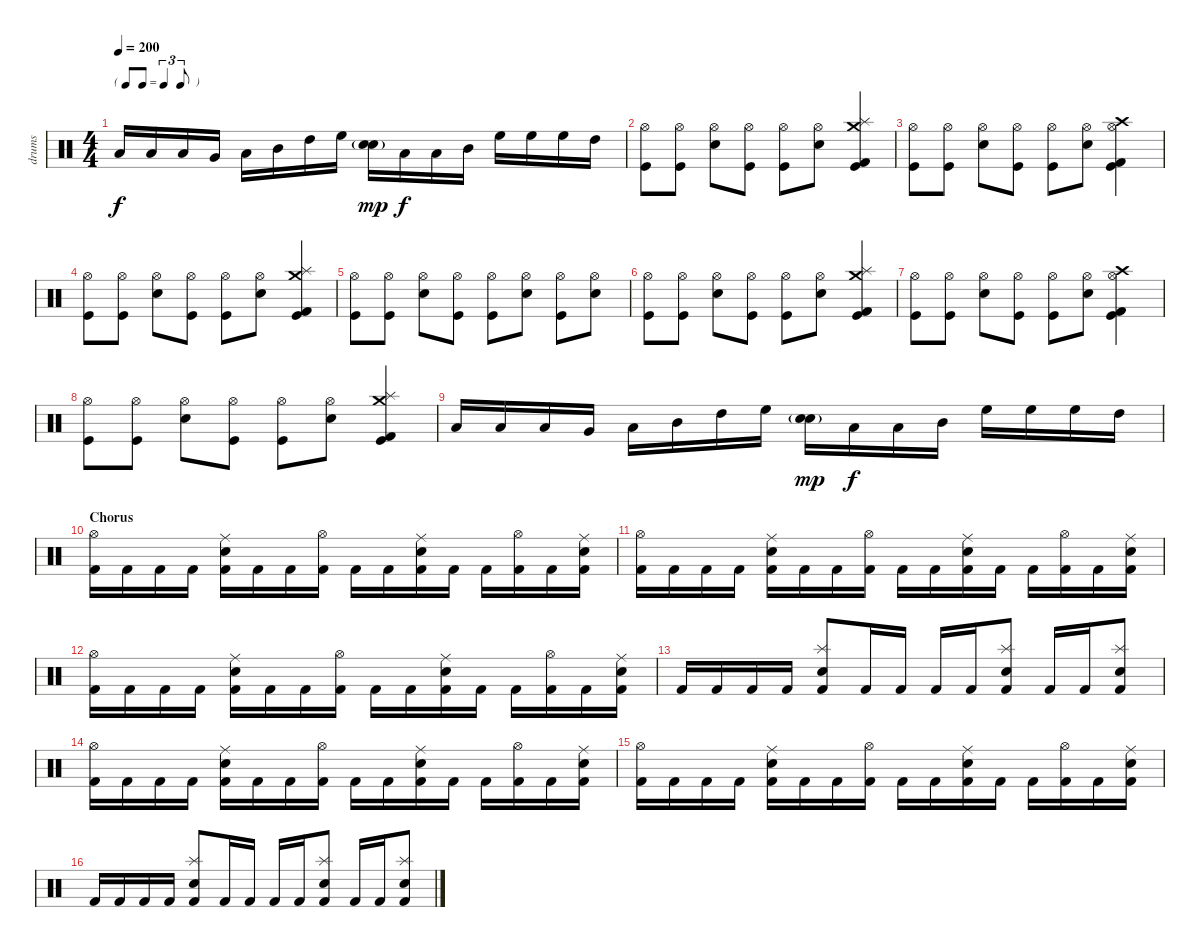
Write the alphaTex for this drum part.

\track ("drums" "drums") {instrument percussion}
\staff {score}
\articulation defaults
\ts (4 4)
\tf triplet8th
\tempo 200
\clef neutral
\ks c "Low Floor Tom (hit)".16{dy f} "Low Floor Tom (hit)".16 "Low Floor Tom (hit)".16 "Very Low Tom (hit)".16 "Low Tom (hit)".16 "Mid Tom (hit)".16 "High Tom (hit)".16 "High Floor Tom (hit)".16
("Electric Snare (hit)"{g} "Snare (hit) 2").16{dy mp} "Low Floor Tom (hit)".16{dy f} "Low Tom (hit)".16 "Mid Tom (hit)".16 "High Floor Tom (hit)".16 "High Floor Tom (hit)".16 "High Floor Tom (hit)".16 "High Tom (hit)".16 |
("Hi-Hat (open)" "Kick (hit)").8 ("Hi-Hat (open)" "Kick (hit)").8 ("Hi-Hat (open)" "Snare (hit) 2").8 ("Hi-Hat (open)" "Kick (hit)").8 ("Hi-Hat (open)" "Kick (hit)").8 ("Hi-Hat (open)" "Snare (hit) 2").8 ("Crash medium (hit)" "Splash (hit)" "Kick (hit)" "Kick (hit) 2").4 |
("Hi-Hat (open)" "Kick (hit)").8 ("Hi-Hat (open)" "Kick (hit)").8 ("Hi-Hat (open)" "Snare (hit) 2").8 ("Hi-Hat (open)" "Kick (hit)").8 ("Hi-Hat (open)" "Kick (hit)").8 ("Hi-Hat (open)" "Snare (hit) 2").8 ("Crash high (hit)" "Hi-Hat (open)" "Kick (hit)" "Kick (hit) 2").4 |
("Hi-Hat (open)" "Kick (hit)").8 ("Hi-Hat (open)" "Kick (hit)").8 ("Hi-Hat (open)" "Snare (hit) 2").8 ("Hi-Hat (open)" "Kick (hit)").8 ("Hi-Hat (open)" "Kick (hit)").8 ("Hi-Hat (open)" "Snare (hit) 2").8 ("Crash medium (hit)" "Splash (hit)" "Kick (hit)" "Kick (hit) 2").4 |
("Hi-Hat (open)" "Kick (hit)").8 ("Hi-Hat (open)" "Kick (hit)").8 ("Hi-Hat (open)" "Snare (hit) 2").8 ("Hi-Hat (open)" "Kick (hit)").8 ("Hi-Hat (open)" "Kick (hit)").8 ("Hi-Hat (open)" "Snare (hit) 2").8 ("Hi-Hat (open)" "Kick (hit)").8 ("Hi-Hat (open)" "Snare (hit) 2").8 |
("Hi-Hat (open)" "Kick (hit)").8 ("Hi-Hat (open)" "Kick (hit)").8 ("Hi-Hat (open)" "Snare (hit) 2").8 ("Hi-Hat (open)" "Kick (hit)").8 ("Hi-Hat (open)" "Kick (hit)").8 ("Hi-Hat (open)" "Snare (hit) 2").8 ("Crash medium (hit)" "Splash (hit)" "Kick (hit)" "Kick (hit) 2").4 |
("Hi-Hat (open)" "Kick (hit)").8 ("Hi-Hat (open)" "Kick (hit)").8 ("Hi-Hat (open)" "Snare (hit) 2").8 ("Hi-Hat (open)" "Kick (hit)").8 ("Hi-Hat (open)" "Kick (hit)").8 ("Hi-Hat (open)" "Snare (hit) 2").8 ("Crash high (hit)" "Hi-Hat (open)" "Kick (hit)" "Kick (hit) 2").4 |
("Hi-Hat (open)" "Kick (hit)").8 ("Hi-Hat (open)" "Kick (hit)").8 ("Hi-Hat (open)" "Snare (hit) 2").8 ("Hi-Hat (open)" "Kick (hit)").8 ("Hi-Hat (open)" "Kick (hit)").8 ("Hi-Hat (open)" "Snare (hit) 2").8 ("Crash medium (hit)" "Splash (hit)" "Kick (hit)" "Kick (hit) 2").4 |
"Low Floor Tom (hit)".16 "Low Floor Tom (hit)".16 "Low Floor Tom (hit)".16 "Very Low Tom (hit)".16 "Low Tom (hit)".16 "Mid Tom (hit)".16 "High Tom (hit)".16 "High Floor Tom (hit)".16 ("Electric Snare (hit)"{g} "Snare (hit) 2").16{dy mp} "Low Floor Tom (hit)".16{dy f} "Low Tom (hit)".16 "Mid Tom (hit)".16 "High Floor Tom (hit)".16 "High Floor Tom (hit)".16 "High Floor Tom (hit)".16 "High Tom (hit)".16 |
\section ("" "Chorus")
("Kick (hit) 2" "Hi-Hat (open)").16 "Kick (hit) 2".16 "Kick (hit) 2".16 "Kick (hit) 2".16 ("Kick (hit) 2" "Electric Snare (hit)" "Ride (middle)").16 "Kick (hit) 2".16 "Kick (hit) 2".16 ("Kick (hit) 2" "Hi-Hat (open)").16 "Kick (hit) 2".16 "Kick (hit) 2".16 ("Kick (hit) 2" "Electric Snare (hit)" "Ride (middle)").16 "Kick (hit) 2".16 "Kick (hit) 2".16 ("Kick (hit) 2" "Hi-Hat (open)").16 "Kick (hit) 2".16 ("Kick (hit) 2" "Electric Snare (hit)" "Ride (middle)").16 |
("Kick (hit) 2" "Hi-Hat (open)").16 "Kick (hit) 2".16 "Kick (hit) 2".16 "Kick (hit) 2".16 ("Kick (hit) 2" "Electric Snare (hit)" "Ride (middle)").16 "Kick (hit) 2".16 "Kick (hit) 2".16 ("Kick (hit) 2" "Hi-Hat (open)").16 "Kick (hit) 2".16 "Kick (hit) 2".16 ("Kick (hit) 2" "Electric Snare (hit)" "Ride (middle)").16 "Kick (hit) 2".16 "Kick (hit) 2".16 ("Kick (hit) 2" "Hi-Hat (open)").16 "Kick (hit) 2".16 ("Kick (hit) 2" "Electric Snare (hit)" "Ride (middle)").16 |
("Kick (hit) 2" "Hi-Hat (open)").16 "Kick (hit) 2".16 "Kick (hit) 2".16 "Kick (hit) 2".16 ("Kick (hit) 2" "Electric Snare (hit)" "Ride (middle)").16 "Kick (hit) 2".16 "Kick (hit) 2".16 ("Kick (hit) 2" "Hi-Hat (open)").16 "Kick (hit) 2".16 "Kick (hit) 2".16 ("Kick (hit) 2" "Electric Snare (hit)" "Ride (middle)").16 "Kick (hit) 2".16 "Kick (hit) 2".16 ("Kick (hit) 2" "Hi-Hat (open)").16 "Kick (hit) 2".16 ("Kick (hit) 2" "Electric Snare (hit)" "Ride (middle)").16 |
"Kick (hit) 2".16 "Kick (hit) 2".16 "Kick (hit) 2".16 "Kick (hit) 2".16 ("Kick (hit) 2" "Electric Snare (hit)" "Splash (hit)").8 "Kick (hit) 2".16 "Kick (hit) 2".16 "Kick (hit) 2".16 "Kick (hit) 2".16 ("Kick (hit) 2" "Electric Snare (hit)" "Splash (hit)").8 "Kick (hit) 2".16 "Kick (hit) 2".16 ("Kick (hit) 2" "Electric Snare (hit)" "Splash (hit)").8 |
("Kick (hit) 2" "Hi-Hat (open)").16 "Kick (hit) 2".16 "Kick (hit) 2".16 "Kick (hit) 2".16 ("Kick (hit) 2" "Electric Snare (hit)" "Ride (middle)").16 "Kick (hit) 2".16 "Kick (hit) 2".16 ("Kick (hit) 2" "Hi-Hat (open)").16 "Kick (hit) 2".16 "Kick (hit) 2".16 ("Kick (hit) 2" "Electric Snare (hit)" "Ride (middle)").16 "Kick (hit) 2".16 "Kick (hit) 2".16 ("Kick (hit) 2" "Hi-Hat (open)").16 "Kick (hit) 2".16 ("Kick (hit) 2" "Electric Snare (hit)" "Ride (middle)").16 |
("Kick (hit) 2" "Hi-Hat (open)").16 "Kick (hit) 2".16 "Kick (hit) 2".16 "Kick (hit) 2".16 ("Kick (hit) 2" "Electric Snare (hit)" "Ride (middle)").16 "Kick (hit) 2".16 "Kick (hit) 2".16 ("Kick (hit) 2" "Hi-Hat (open)").16 "Kick (hit) 2".16 "Kick (hit) 2".16 ("Kick (hit) 2" "Electric Snare (hit)" "Ride (middle)").16 "Kick (hit) 2".16 "Kick (hit) 2".16 ("Kick (hit) 2" "Hi-Hat (open)").16 "Kick (hit) 2".16 ("Kick (hit) 2" "Electric Snare (hit)" "Ride (middle)").16 |
"Kick (hit) 2".16 "Kick (hit) 2".16 "Kick (hit) 2".16 "Kick (hit) 2".16 ("Kick (hit) 2" "Electric Snare (hit)" "Splash (hit)").8 "Kick (hit) 2".16 "Kick (hit) 2".16 "Kick (hit) 2".16 "Kick (hit) 2".16 ("Kick (hit) 2" "Electric Snare (hit)" "Splash (hit)").8 "Kick (hit) 2".16 "Kick (hit) 2".16 ("Kick (hit) 2" "Electric Snare (hit)" "Splash (hit)").8
